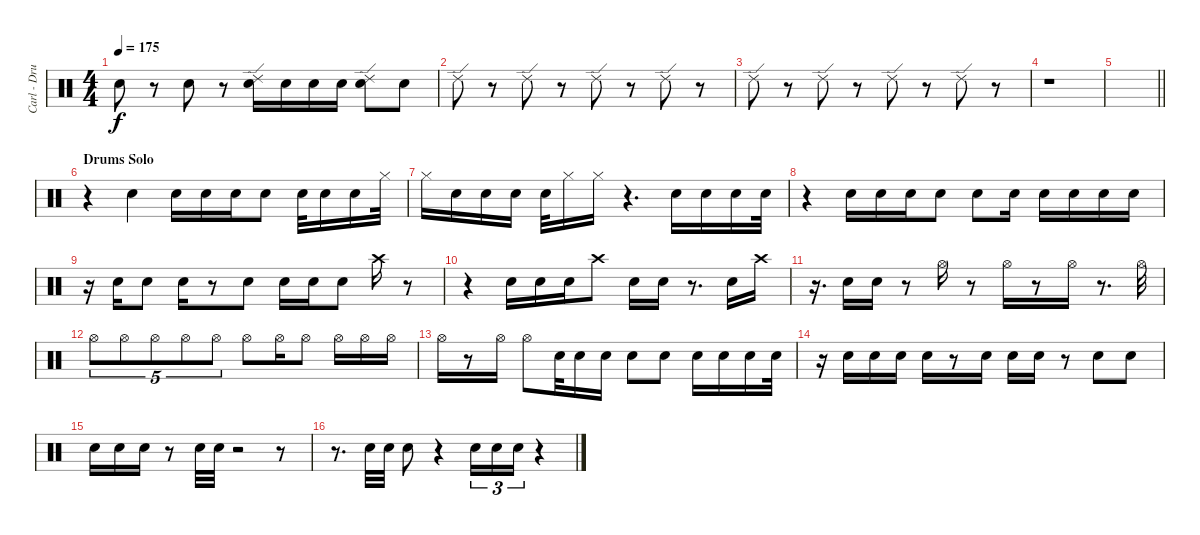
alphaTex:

\track ("Carl - Drums II" "Carl - Dru") {instrument percussion}
\staff {score}
\articulation defaults
\ts (4 4)
\tempo 175
\clef neutral
\ks c "Electric Snare (hit)".8{dy f}
r.8 "Electric Snare (hit)".8 r.8 ("Electric Snare (hit)" "Ride (edge) 2").16 "Electric Snare (hit)".16 "Electric Snare (hit)".16 "Electric Snare (hit)".16 ("Electric Snare (hit)" "Ride (edge) 2").8 "Electric Snare (hit)".8 |
"Ride (edge) 2".8 r.8 "Ride (edge) 2".8 r.8 "Ride (edge) 2".8 r.8 "Ride (edge) 2".8 r.8 |
"Ride (edge) 2".8 r.8 "Ride (edge) 2".8 r.8 "Ride (edge) 2".8 r.8 "Ride (edge) 2".8 r.8 |
r.1 |
\barLineRight lightlight
|
\section ("" "Drums Solo")
r.4 "Snare (hit) 2".4 "Snare (hit) 2".16 "Snare (hit) 2".16 "Snare (hit) 2".16 "Snare (hit) 2".8 "Snare (hit) 2".32 "Snare (hit) 2".16 "Snare (hit) 2".16 "Hi-Hat (closed)".32 |
"Hi-Hat (closed)".16 "Snare (hit) 2".16 "Snare (hit) 2".16 "Snare (hit) 2".16 "Snare (hit) 2".32 "Hi-Hat (closed)".16 "Hi-Hat (closed)".16 r.4{d} "Snare (hit) 2".16 "Snare (hit) 2".16 "Snare (hit) 2".16 "Snare (hit) 2".32 |
r.4 "Snare (hit) 2".16 "Snare (hit) 2".16 "Snare (hit) 2".16 "Snare (hit) 2".8 "Snare (hit) 2".8 "Snare (hit) 2".16 "Snare (hit) 2".16 "Snare (hit) 2".16 "Snare (hit) 2".16 "Snare (hit) 2".16 |
r.16 "Snare (hit) 2".16 "Snare (hit) 2".8 "Snare (hit) 2".16 r.8 "Snare (hit) 2".8 "Snare (hit) 2".16 "Snare (hit) 2".16 "Snare (hit) 2".8 "Crash high (hit)".16 r.8 |
r.4 "Snare (hit) 2".16 "Snare (hit) 2".16 "Snare (hit) 2".16 "Crash high (hit)".8 "Snare (hit) 2".16 "Snare (hit) 2".16 r.8{d} "Snare (hit) 2".16 "Crash high (hit)".16 |
r.16{d} "Snare (hit) 2".16 "Snare (hit) 2".16 r.8 "Hi-Hat (open)".16 r.8 "Hi-Hat (open)".16 r.8 "Hi-Hat (open)".16 r.8{d} "Hi-Hat (open)".32 |
"Hi-Hat (open)".8{tu (5 4)} "Hi-Hat (open)".8{tu (5 4)} "Hi-Hat (open)".8{tu (5 4)} "Hi-Hat (open)".8{tu (5 4)} "Hi-Hat (open)".8{tu (5 4)} "Hi-Hat (open)".8 "Hi-Hat (open)".16 "Hi-Hat (open)".8 "Hi-Hat (open)".16 "Hi-Hat (open)".16 "Hi-Hat (open)".16 |
"Hi-Hat (open)".16 r.8 "Hi-Hat (open)".16 "Hi-Hat (open)".8 "Snare (hit) 2".32 "Snare (hit) 2".16 "Snare (hit) 2".16 "Snare (hit) 2".8 "Snare (hit) 2".8 "Snare (hit) 2".16 "Snare (hit) 2".16 "Snare (hit) 2".16 "Snare (hit) 2".32 |
r.16 "Snare (hit) 2".16 "Snare (hit) 2".16 "Snare (hit) 2".16 "Snare (hit) 2".16 r.8 "Snare (hit) 2".16 "Snare (hit) 2".16 "Snare (hit) 2".16 r.8 "Snare (hit) 2".8 "Snare (hit) 2".8 |
"Snare (hit) 2".16 "Snare (hit) 2".16 "Snare (hit) 2".16 r.8 "Snare (hit) 2".32 "Snare (hit) 2".32 r.2 r.8 |
r.8{d} "Snare (hit) 2".32 "Snare (hit) 2".32 "Snare (hit) 2".8 r.4 "Snare (hit) 2".16{tu (3 2)} "Snare (hit) 2".16{tu (3 2)} "Snare (hit) 2".16{tu (3 2)} r.4
